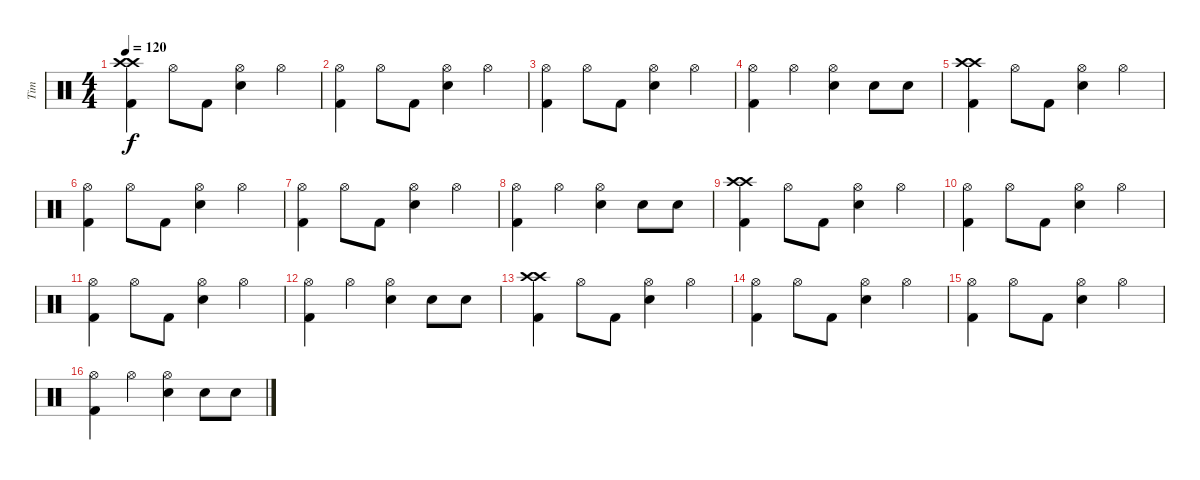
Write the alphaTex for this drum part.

\track ("Tim" "Tim") {instrument percussion}
\staff {score}
\articulation defaults
\ts (4 4)
\tempo 120
\clef neutral
\ks c
("Crash high (hit)" "Crash high (hit)" "Kick (hit) 2").4{dy f} "Hi-Hat (open)".8 "Kick (hit) 2".8 ("Hi-Hat (open)" "Snare (hit) 2").4 "Hi-Hat (open)".4 |
("Hi-Hat (open)" "Kick (hit) 2").4 "Hi-Hat (open)".8 "Kick (hit) 2".8 ("Hi-Hat (open)" "Snare (hit) 2").4 "Hi-Hat (open)".4 |
("Hi-Hat (open)" "Kick (hit) 2").4 "Hi-Hat (open)".8 "Kick (hit) 2".8 ("Hi-Hat (open)" "Snare (hit) 2").4 "Hi-Hat (open)".4 |
("Hi-Hat (open)" "Kick (hit) 2").4 "Hi-Hat (open)".4 ("Hi-Hat (open)" "Snare (hit) 2").4 "Snare (hit) 2".8 "Snare (hit) 2".8 |
("Crash high (hit)" "Crash high (hit)" "Kick (hit) 2").4 "Hi-Hat (open)".8 "Kick (hit) 2".8 ("Hi-Hat (open)" "Snare (hit) 2").4 "Hi-Hat (open)".4 |
("Hi-Hat (open)" "Kick (hit) 2").4 "Hi-Hat (open)".8 "Kick (hit) 2".8 ("Hi-Hat (open)" "Snare (hit) 2").4 "Hi-Hat (open)".4 |
("Hi-Hat (open)" "Kick (hit) 2").4 "Hi-Hat (open)".8 "Kick (hit) 2".8 ("Hi-Hat (open)" "Snare (hit) 2").4 "Hi-Hat (open)".4 |
("Hi-Hat (open)" "Kick (hit) 2").4 "Hi-Hat (open)".4 ("Hi-Hat (open)" "Snare (hit) 2").4 "Snare (hit) 2".8 "Snare (hit) 2".8 |
("Crash high (hit)" "Crash high (hit)" "Kick (hit) 2").4 "Hi-Hat (open)".8 "Kick (hit) 2".8 ("Hi-Hat (open)" "Snare (hit) 2").4 "Hi-Hat (open)".4 |
("Hi-Hat (open)" "Kick (hit) 2").4 "Hi-Hat (open)".8 "Kick (hit) 2".8 ("Hi-Hat (open)" "Snare (hit) 2").4 "Hi-Hat (open)".4 |
("Hi-Hat (open)" "Kick (hit) 2").4 "Hi-Hat (open)".8 "Kick (hit) 2".8 ("Hi-Hat (open)" "Snare (hit) 2").4 "Hi-Hat (open)".4 |
("Hi-Hat (open)" "Kick (hit) 2").4 "Hi-Hat (open)".4 ("Hi-Hat (open)" "Snare (hit) 2").4 "Snare (hit) 2".8 "Snare (hit) 2".8 |
("Crash high (hit)" "Crash high (hit)" "Kick (hit) 2").4 "Hi-Hat (open)".8 "Kick (hit) 2".8 ("Hi-Hat (open)" "Snare (hit) 2").4 "Hi-Hat (open)".4 |
("Hi-Hat (open)" "Kick (hit) 2").4 "Hi-Hat (open)".8 "Kick (hit) 2".8 ("Hi-Hat (open)" "Snare (hit) 2").4 "Hi-Hat (open)".4 |
("Hi-Hat (open)" "Kick (hit) 2").4 "Hi-Hat (open)".8 "Kick (hit) 2".8 ("Hi-Hat (open)" "Snare (hit) 2").4 "Hi-Hat (open)".4 |
("Hi-Hat (open)" "Kick (hit) 2").4 "Hi-Hat (open)".4 ("Hi-Hat (open)" "Snare (hit) 2").4 "Snare (hit) 2".8 "Snare (hit) 2".8
